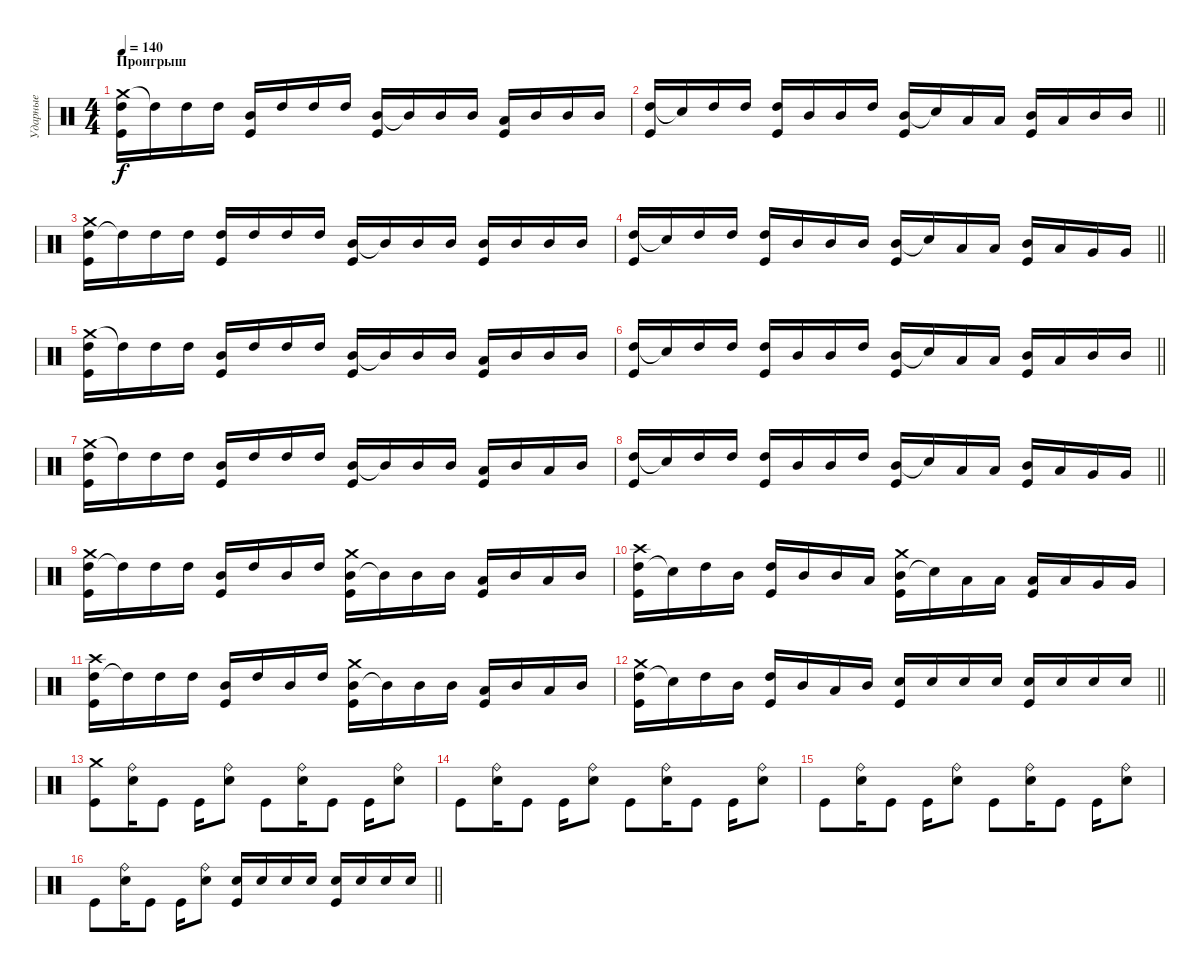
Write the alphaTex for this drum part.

\track ("Ударные" "Ударные") {instrument percussion}
\staff {score}
\articulation defaults
\ts (4 4)
\section ("" "Проигрыш")
\tempo 140
\clef neutral
\ks c
("Crash medium (hit)" "High Tom (hit)" "Kick (hit)").16{dy f} "High Tom (hit)"{t}.16 "High Tom (hit)".16 "High Tom (hit)".16 ("Mid Tom (hit)" "Kick (hit)").16 "High Tom (hit)".16 "High Tom (hit)".16 "High Tom (hit)".16 ("Mid Tom (hit)" "Kick (hit)").16 "Mid Tom (hit)"{t}.16 "Mid Tom (hit)".16 "Mid Tom (hit)".16 ("Low Tom (hit)" "Kick (hit)").16 "Mid Tom (hit)".16 "Mid Tom (hit)".16 "Mid Tom (hit)".16 |
\barLineRight lightlight
("High Tom (hit)" "Kick (hit)").16 "Snare (hit)"{t}.16 "High Tom (hit)".16 "High Tom (hit)".16 ("High Tom (hit)" "Kick (hit)").16 "Mid Tom (hit)".16 "Mid Tom (hit)".16 "High Tom (hit)".16 ("Mid Tom (hit)" "Kick (hit)").16 "Snare (hit)"{t}.16 "Low Tom (hit)".16 "Low Tom (hit)".16 ("Mid Tom (hit)" "Kick (hit)").16 "Low Tom (hit)".16 "Mid Tom (hit)".16 "Mid Tom (hit)".16 |
("High Tom (hit)" "Kick (hit)" "Crash medium (hit)").16 "High Tom (hit)"{t}.16 "High Tom (hit)".16 "High Tom (hit)".16 ("High Tom (hit)" "Kick (hit)").16 "High Tom (hit)".16 "High Tom (hit)".16 "High Tom (hit)".16 ("Mid Tom (hit)" "Kick (hit)").16 "Mid Tom (hit)"{t}.16 "Mid Tom (hit)".16 "Mid Tom (hit)".16 ("Mid Tom (hit)" "Kick (hit)").16 "Mid Tom (hit)".16 "Mid Tom (hit)".16 "Mid Tom (hit)".16 |
\barLineRight lightlight
("High Tom (hit)" "Kick (hit)").16 "Snare (hit)"{t}.16 "High Tom (hit)".16 "High Tom (hit)".16 ("High Tom (hit)" "Kick (hit)").16 "Mid Tom (hit)".16 "Mid Tom (hit)".16 "Mid Tom (hit)".16 ("Mid Tom (hit)" "Kick (hit)").16 "Snare (hit)"{t}.16 "Low Tom (hit)".16 "Low Tom (hit)".16 ("Mid Tom (hit)" "Kick (hit)").16 "Low Tom (hit)".16 "Very Low Tom (hit)".16 "Very Low Tom (hit)".16 |
\section ("" " ")
("Crash medium (hit)" "High Tom (hit)" "Kick (hit)").16 "High Tom (hit)"{t}.16 "High Tom (hit)".16 "High Tom (hit)".16 ("Mid Tom (hit)" "Kick (hit)").16 "High Tom (hit)".16 "High Tom (hit)".16 "High Tom (hit)".16 ("Mid Tom (hit)" "Kick (hit)").16 "Mid Tom (hit)"{t}.16 "Mid Tom (hit)".16 "Mid Tom (hit)".16 ("Low Tom (hit)" "Kick (hit)").16 "Mid Tom (hit)".16 "Mid Tom (hit)".16 "Mid Tom (hit)".16 |
\barLineRight lightlight
("High Tom (hit)" "Kick (hit)").16 "Snare (hit)"{t}.16 "High Tom (hit)".16 "High Tom (hit)".16 ("High Tom (hit)" "Kick (hit)").16 "Mid Tom (hit)".16 "Mid Tom (hit)".16 "High Tom (hit)".16 ("Mid Tom (hit)" "Kick (hit)").16 "Snare (hit)"{t}.16 "Low Tom (hit)".16 "Low Tom (hit)".16 ("Mid Tom (hit)" "Kick (hit)").16 "Low Tom (hit)".16 "Mid Tom (hit)".16 "Mid Tom (hit)".16 |
("Crash medium (hit)" "High Tom (hit)" "Kick (hit)").16 "High Tom (hit)"{t}.16 "High Tom (hit)".16 "High Tom (hit)".16 ("Mid Tom (hit)" "Kick (hit)").16 "High Tom (hit)".16 "High Tom (hit)".16 "High Tom (hit)".16 ("Mid Tom (hit)" "Kick (hit)").16 "Mid Tom (hit)"{t}.16 "Mid Tom (hit)".16 "Mid Tom (hit)".16 ("Low Tom (hit)" "Kick (hit)").16 "Mid Tom (hit)".16 "Low Tom (hit)".16 "Mid Tom (hit)".16 |
\barLineRight lightlight
("High Tom (hit)" "Kick (hit)").16 "Snare (hit)"{t}.16 "High Tom (hit)".16 "High Tom (hit)".16 ("High Tom (hit)" "Kick (hit)").16 "Mid Tom (hit)".16 "Mid Tom (hit)".16 "High Tom (hit)".16 ("Mid Tom (hit)" "Kick (hit)").16 "Snare (hit)"{t}.16 "Low Tom (hit)".16 "Low Tom (hit)".16 ("Mid Tom (hit)" "Kick (hit)").16 "Low Tom (hit)".16 "Very Low Tom (hit)".16 "Very Low Tom (hit)".16 |
("High Tom (hit)" "Kick (hit)" "Crash medium (hit)").16 "High Tom (hit)"{t}.16 "High Tom (hit)".16 "High Tom (hit)".16 ("Mid Tom (hit)" "Kick (hit)").16 "High Tom (hit)".16 "Mid Tom (hit)".16 "High Tom (hit)".16 ("Mid Tom (hit)" "Kick (hit)" "Crash medium (hit)").16 "Mid Tom (hit)"{t}.16 "Mid Tom (hit)".16 "Mid Tom (hit)".16 ("Low Tom (hit)" "Kick (hit)").16 "Mid Tom (hit)".16 "Low Tom (hit)".16 "Mid Tom (hit)".16 |
("High Tom (hit)" "Kick (hit)" "Crash high (hit)").16 "Snare (hit)"{t}.16 "High Tom (hit)".16 "Mid Tom (hit)".16 ("High Tom (hit)" "Kick (hit)").16 "Mid Tom (hit)".16 "Mid Tom (hit)".16 "Low Tom (hit)".16 ("Mid Tom (hit)" "Kick (hit)" "Crash medium (hit)").16 "Snare (hit)"{t}.16 "Low Tom (hit)".16 "Low Tom (hit)".16 ("Low Tom (hit)" "Kick (hit)").16 "Low Tom (hit)".16 "Very Low Tom (hit)".16 "Very Low Tom (hit)".16 |
("High Tom (hit)" "Kick (hit)" "Crash high (hit)").16 "High Tom (hit)"{t}.16 "High Tom (hit)".16 "High Tom (hit)".16 ("Mid Tom (hit)" "Kick (hit)").16 "High Tom (hit)".16 "Mid Tom (hit)".16 "High Tom (hit)".16 ("Mid Tom (hit)" "Kick (hit)" "Crash medium (hit)").16 "Mid Tom (hit)"{t}.16 "Mid Tom (hit)".16 "Mid Tom (hit)".16 ("Low Tom (hit)" "Kick (hit)").16 "Mid Tom (hit)".16 "Low Tom (hit)".16 "Mid Tom (hit)".16 |
\barLineRight lightlight
("High Tom (hit)" "Kick (hit)" "Crash medium (hit)").16 "Snare (hit)"{t}.16 "High Tom (hit)".16 "Mid Tom (hit)".16 ("High Tom (hit)" "Kick (hit)").16 "Mid Tom (hit)".16 "Low Tom (hit)".16 "Mid Tom (hit)".16 ("Electric Snare (hit)" "Kick (hit)").16 "Electric Snare (hit)".16 "Electric Snare (hit)".16 "Electric Snare (hit)".16 ("Electric Snare (hit)" "Kick (hit)").16 "Electric Snare (hit)".16 "Electric Snare (hit)".16 "Electric Snare (hit)".16 |
\section ("" " ")
("Crash medium (hit)" "Kick (hit)").8 ("Ride (bell)" "Electric Snare (hit)").16 "Kick (hit)".8 "Kick (hit)".16 ("Ride (bell)" "Electric Snare (hit)").8 "Kick (hit)".8 ("Ride (bell)" "Electric Snare (hit)").16 "Kick (hit)".8 "Kick (hit)".16 ("Ride (bell)" "Electric Snare (hit)").8 |
"Kick (hit)".8 ("Ride (bell)" "Electric Snare (hit)").16 "Kick (hit)".8 "Kick (hit)".16 ("Ride (bell)" "Electric Snare (hit)").8 "Kick (hit)".8 ("Ride (bell)" "Electric Snare (hit)").16 "Kick (hit)".8 "Kick (hit)".16 ("Ride (bell)" "Electric Snare (hit)").8 |
"Kick (hit)".8 ("Ride (bell)" "Electric Snare (hit)").16 "Kick (hit)".8 "Kick (hit)".16 ("Ride (bell)" "Electric Snare (hit)").8 "Kick (hit)".8 ("Ride (bell)" "Electric Snare (hit)").16 "Kick (hit)".8 "Kick (hit)".16 ("Ride (bell)" "Electric Snare (hit)").8 |
\barLineRight lightlight "Kick (hit)".8
("Ride (bell)" "Electric Snare (hit)").16 "Kick (hit)".8 "Kick (hit)".16 ("Ride (bell)" "Electric Snare (hit)").8 ("Electric Snare (hit)" "Kick (hit)").16 "Electric Snare (hit)".16 "Electric Snare (hit)".16 "Electric Snare (hit)".16 ("Electric Snare (hit)" "Kick (hit)").16 "Electric Snare (hit)".16 "Electric Snare (hit)".16 "Electric Snare (hit)".16
